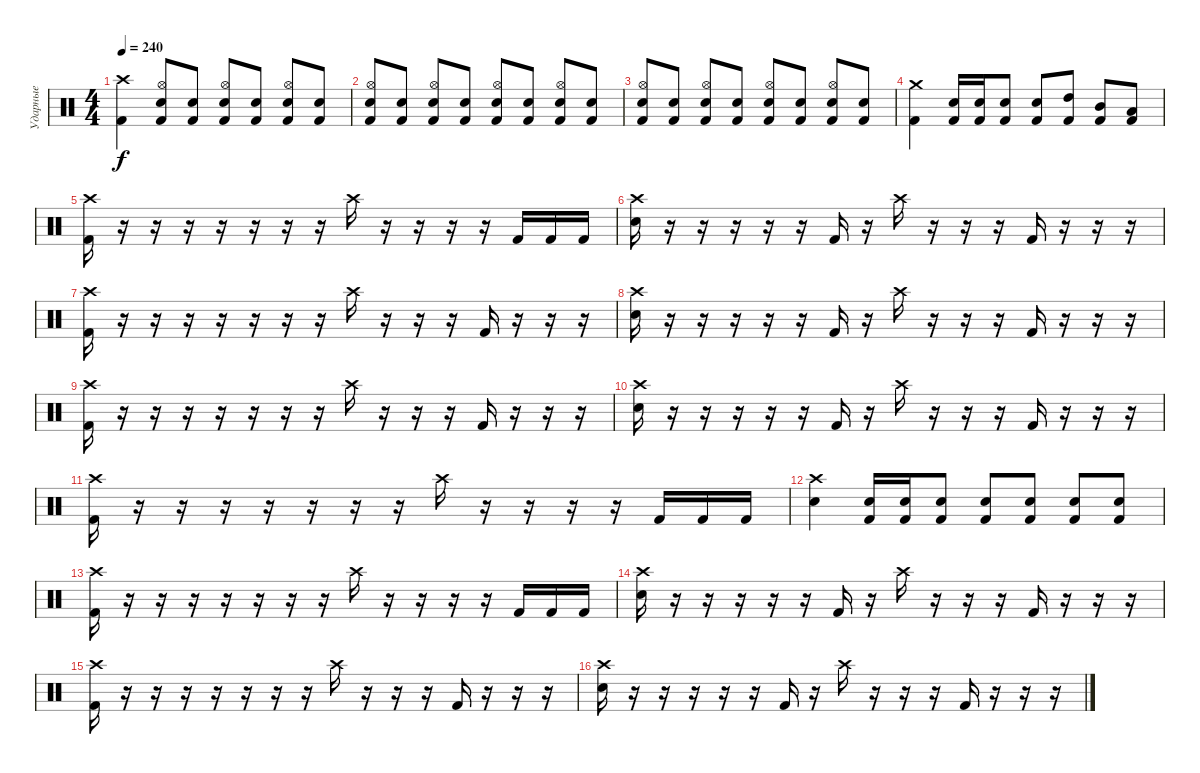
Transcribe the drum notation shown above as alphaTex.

\track ("Ударные" "Ударные") {instrument percussion}
\staff {score}
\articulation defaults
\ts (4 4)
\tempo 240
\clef neutral
\ks c
("Crash high (hit)" "Kick (hit) 2").4{dy f} ("Hi-Hat (open)" "Electric Snare (hit)" "Kick (hit) 2").8 ("Electric Snare (hit)" "Kick (hit) 2").8 ("Hi-Hat (open)" "Electric Snare (hit)" "Kick (hit) 2").8 ("Electric Snare (hit)" "Kick (hit) 2").8 ("Hi-Hat (open)" "Electric Snare (hit)" "Kick (hit) 2").8 ("Electric Snare (hit)" "Kick (hit) 2").8 |
("Hi-Hat (open)" "Electric Snare (hit)" "Kick (hit) 2").8 ("Electric Snare (hit)" "Kick (hit) 2").8 ("Hi-Hat (open)" "Electric Snare (hit)" "Kick (hit) 2").8 ("Electric Snare (hit)" "Kick (hit) 2").8 ("Hi-Hat (open)" "Electric Snare (hit)" "Kick (hit) 2").8 ("Electric Snare (hit)" "Kick (hit) 2").8 ("Hi-Hat (open)" "Electric Snare (hit)" "Kick (hit) 2").8 ("Electric Snare (hit)" "Kick (hit) 2").8 |
("Hi-Hat (open)" "Electric Snare (hit)" "Kick (hit) 2").8 ("Electric Snare (hit)" "Kick (hit) 2").8 ("Hi-Hat (open)" "Electric Snare (hit)" "Kick (hit) 2").8 ("Electric Snare (hit)" "Kick (hit) 2").8 ("Hi-Hat (open)" "Electric Snare (hit)" "Kick (hit) 2").8 ("Electric Snare (hit)" "Kick (hit) 2").8 ("Hi-Hat (open)" "Electric Snare (hit)" "Kick (hit) 2").8 ("Electric Snare (hit)" "Kick (hit) 2").8 |
("Crash medium (hit)" "Kick (hit) 2").4 ("Electric Snare (hit)" "Kick (hit) 2").16 ("Electric Snare (hit)" "Kick (hit) 2").16 ("Electric Snare (hit)" "Kick (hit) 2").8 ("Electric Snare (hit)" "Kick (hit) 2").8 ("High Tom (hit)" "Kick (hit) 2").8 ("Mid Tom (hit)" "Kick (hit) 2").8 ("Low Tom (hit)" "Kick (hit) 2").8 |
("Crash high (hit)" "Kick (hit) 2").16 r.16 r.16 r.16 r.16 r.16 r.16 r.16 "Crash high (hit)".16 r.16 r.16 r.16 r.16 "Kick (hit) 2".16 "Kick (hit) 2".16 "Kick (hit) 2".16 |
("Crash high (hit)" "Electric Snare (hit)").16 r.16 r.16 r.16 r.16 r.16 "Kick (hit) 2".16 r.16 "Crash high (hit)".16 r.16 r.16 r.16 "Kick (hit) 2".16 r.16 r.16 r.16 |
("Crash high (hit)" "Kick (hit) 2").16 r.16 r.16 r.16 r.16 r.16 r.16 r.16 "Crash high (hit)".16 r.16 r.16 r.16 "Kick (hit) 2".16 r.16 r.16 r.16 |
("Crash high (hit)" "Electric Snare (hit)").16 r.16 r.16 r.16 r.16 r.16 "Kick (hit) 2".16 r.16 "Crash high (hit)".16 r.16 r.16 r.16 "Kick (hit) 2".16 r.16 r.16 r.16 |
("Crash high (hit)" "Kick (hit) 2").16 r.16 r.16 r.16 r.16 r.16 r.16 r.16 "Crash high (hit)".16 r.16 r.16 r.16 "Kick (hit) 2".16 r.16 r.16 r.16 |
("Crash high (hit)" "Electric Snare (hit)").16 r.16 r.16 r.16 r.16 r.16 "Kick (hit) 2".16 r.16 "Crash high (hit)".16 r.16 r.16 r.16 "Kick (hit) 2".16 r.16 r.16 r.16 |
("Crash high (hit)" "Kick (hit) 2").16 r.16 r.16 r.16 r.16 r.16 r.16 r.16 "Crash high (hit)".16 r.16 r.16 r.16 r.16 "Kick (hit) 2".16 "Kick (hit) 2".16 "Kick (hit) 2".16 |
("Crash high (hit)" "Electric Snare (hit)").4 ("Electric Snare (hit)" "Kick (hit) 2").16 ("Electric Snare (hit)" "Kick (hit) 2").16 ("Electric Snare (hit)" "Kick (hit) 2").8 ("Electric Snare (hit)" "Kick (hit) 2").8 ("Electric Snare (hit)" "Kick (hit) 2").8 ("Electric Snare (hit)" "Kick (hit) 2").8 ("Electric Snare (hit)" "Kick (hit) 2").8 |
("Crash high (hit)" "Kick (hit) 2").16 r.16 r.16 r.16 r.16 r.16 r.16 r.16 "Crash high (hit)".16 r.16 r.16 r.16 r.16 "Kick (hit) 2".16 "Kick (hit) 2".16 "Kick (hit) 2".16 |
("Crash high (hit)" "Electric Snare (hit)").16 r.16 r.16 r.16 r.16 r.16 "Kick (hit) 2".16 r.16 "Crash high (hit)".16 r.16 r.16 r.16 "Kick (hit) 2".16 r.16 r.16 r.16 |
("Crash high (hit)" "Kick (hit) 2").16 r.16 r.16 r.16 r.16 r.16 r.16 r.16 "Crash high (hit)".16 r.16 r.16 r.16 "Kick (hit) 2".16 r.16 r.16 r.16 |
("Crash high (hit)" "Electric Snare (hit)").16 r.16 r.16 r.16 r.16 r.16 "Kick (hit) 2".16 r.16 "Crash high (hit)".16 r.16 r.16 r.16 "Kick (hit) 2".16 r.16 r.16 r.16
